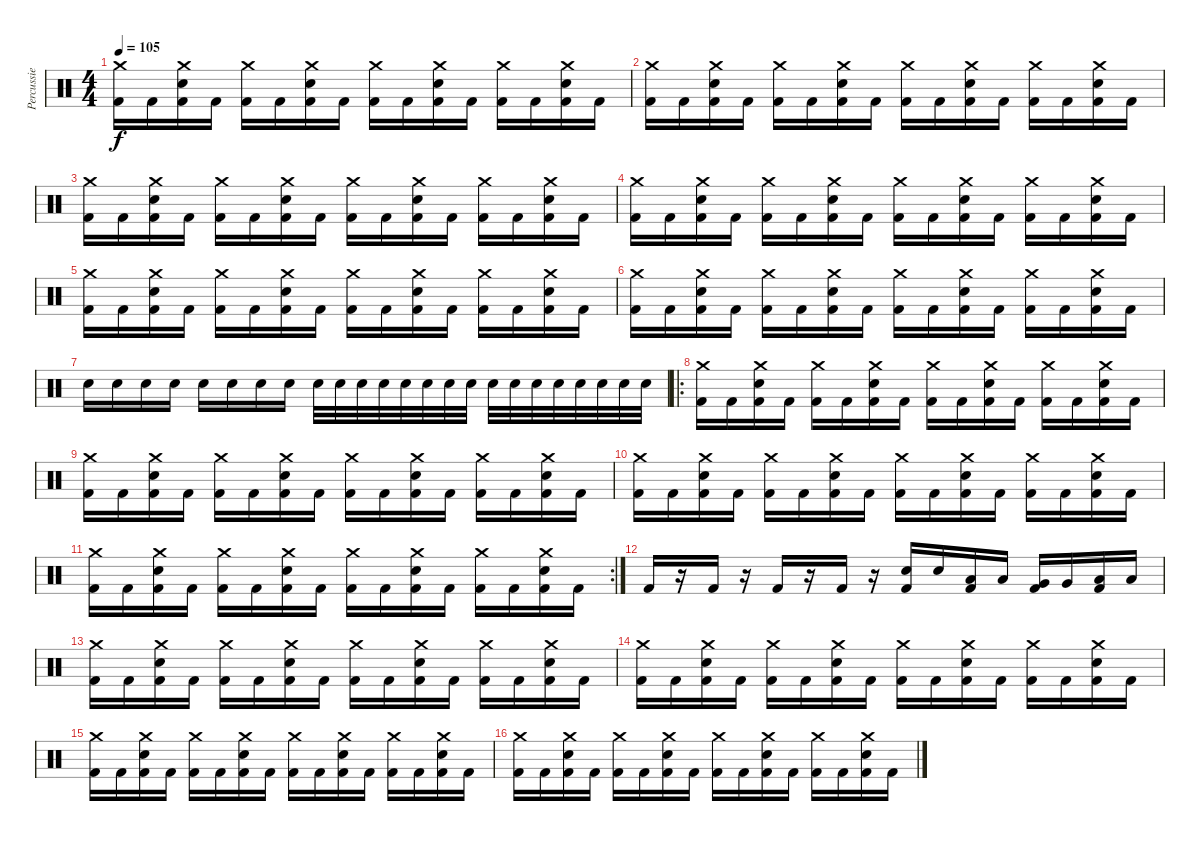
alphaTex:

\track ("Percussie" "Percussie") {instrument percussion}
\staff {score}
\articulation defaults
\ts (4 4)
\tempo 105
\clef neutral
\ks c
("Crash medium (hit)" "Kick (hit) 2").16{dy f} "Kick (hit) 2".16 ("Crash medium (hit)" "Electric Snare (hit)" "Kick (hit) 2").16 "Kick (hit) 2".16 ("Crash medium (hit)" "Kick (hit) 2").16 "Kick (hit) 2".16 ("Crash medium (hit)" "Electric Snare (hit)" "Kick (hit) 2").16 "Kick (hit) 2".16 ("Crash medium (hit)" "Kick (hit) 2").16 "Kick (hit) 2".16 ("Crash medium (hit)" "Electric Snare (hit)" "Kick (hit) 2").16 "Kick (hit) 2".16 ("Crash medium (hit)" "Kick (hit) 2").16 "Kick (hit) 2".16 ("Crash medium (hit)" "Electric Snare (hit)" "Kick (hit) 2").16 "Kick (hit) 2".16 |
("Crash medium (hit)" "Kick (hit) 2").16 "Kick (hit) 2".16 ("Crash medium (hit)" "Electric Snare (hit)" "Kick (hit) 2").16 "Kick (hit) 2".16 ("Crash medium (hit)" "Kick (hit) 2").16 "Kick (hit) 2".16 ("Crash medium (hit)" "Electric Snare (hit)" "Kick (hit) 2").16 "Kick (hit) 2".16 ("Crash medium (hit)" "Kick (hit) 2").16 "Kick (hit) 2".16 ("Crash medium (hit)" "Electric Snare (hit)" "Kick (hit) 2").16 "Kick (hit) 2".16 ("Crash medium (hit)" "Kick (hit) 2").16 "Kick (hit) 2".16 ("Crash medium (hit)" "Electric Snare (hit)" "Kick (hit) 2").16 "Kick (hit) 2".16 |
("Crash medium (hit)" "Kick (hit) 2").16 "Kick (hit) 2".16 ("Crash medium (hit)" "Electric Snare (hit)" "Kick (hit) 2").16 "Kick (hit) 2".16 ("Crash medium (hit)" "Kick (hit) 2").16 "Kick (hit) 2".16 ("Crash medium (hit)" "Electric Snare (hit)" "Kick (hit) 2").16 "Kick (hit) 2".16 ("Crash medium (hit)" "Kick (hit) 2").16 "Kick (hit) 2".16 ("Crash medium (hit)" "Electric Snare (hit)" "Kick (hit) 2").16 "Kick (hit) 2".16 ("Crash medium (hit)" "Kick (hit) 2").16 "Kick (hit) 2".16 ("Crash medium (hit)" "Electric Snare (hit)" "Kick (hit) 2").16 "Kick (hit) 2".16 |
("Crash medium (hit)" "Kick (hit) 2").16 "Kick (hit) 2".16 ("Crash medium (hit)" "Electric Snare (hit)" "Kick (hit) 2").16 "Kick (hit) 2".16 ("Crash medium (hit)" "Kick (hit) 2").16 "Kick (hit) 2".16 ("Crash medium (hit)" "Electric Snare (hit)" "Kick (hit) 2").16 "Kick (hit) 2".16 ("Crash medium (hit)" "Kick (hit) 2").16 "Kick (hit) 2".16 ("Crash medium (hit)" "Electric Snare (hit)" "Kick (hit) 2").16 "Kick (hit) 2".16 ("Crash medium (hit)" "Kick (hit) 2").16 "Kick (hit) 2".16 ("Crash medium (hit)" "Electric Snare (hit)" "Kick (hit) 2").16 "Kick (hit) 2".16 |
("Crash medium (hit)" "Kick (hit) 2").16 "Kick (hit) 2".16 ("Crash medium (hit)" "Electric Snare (hit)" "Kick (hit) 2").16 "Kick (hit) 2".16 ("Crash medium (hit)" "Kick (hit) 2").16 "Kick (hit) 2".16 ("Crash medium (hit)" "Electric Snare (hit)" "Kick (hit) 2").16 "Kick (hit) 2".16 ("Crash medium (hit)" "Kick (hit) 2").16 "Kick (hit) 2".16 ("Crash medium (hit)" "Electric Snare (hit)" "Kick (hit) 2").16 "Kick (hit) 2".16 ("Crash medium (hit)" "Kick (hit) 2").16 "Kick (hit) 2".16 ("Crash medium (hit)" "Electric Snare (hit)" "Kick (hit) 2").16 "Kick (hit) 2".16 |
("Crash medium (hit)" "Kick (hit) 2").16 "Kick (hit) 2".16 ("Crash medium (hit)" "Electric Snare (hit)" "Kick (hit) 2").16 "Kick (hit) 2".16 ("Crash medium (hit)" "Kick (hit) 2").16 "Kick (hit) 2".16 ("Crash medium (hit)" "Electric Snare (hit)" "Kick (hit) 2").16 "Kick (hit) 2".16 ("Crash medium (hit)" "Kick (hit) 2").16 "Kick (hit) 2".16 ("Crash medium (hit)" "Electric Snare (hit)" "Kick (hit) 2").16 "Kick (hit) 2".16 ("Crash medium (hit)" "Kick (hit) 2").16 "Kick (hit) 2".16 ("Crash medium (hit)" "Electric Snare (hit)" "Kick (hit) 2").16 "Kick (hit) 2".16 |
"Electric Snare (hit)".16 "Electric Snare (hit)".16 "Electric Snare (hit)".16 "Electric Snare (hit)".16 "Electric Snare (hit)".16 "Electric Snare (hit)".16 "Electric Snare (hit)".16 "Electric Snare (hit)".16 "Electric Snare (hit)".32 "Electric Snare (hit)".32 "Electric Snare (hit)".32 "Electric Snare (hit)".32 "Electric Snare (hit)".32 "Electric Snare (hit)".32 "Electric Snare (hit)".32 "Electric Snare (hit)".32 "Electric Snare (hit)".32 "Electric Snare (hit)".32 "Electric Snare (hit)".32 "Electric Snare (hit)".32 "Electric Snare (hit)".32 "Electric Snare (hit)".32 "Electric Snare (hit)".32 "Electric Snare (hit)".32 |
\ro
("Crash medium (hit)" "Kick (hit) 2").16 "Kick (hit) 2".16 ("Crash medium (hit)" "Electric Snare (hit)" "Kick (hit) 2").16 "Kick (hit) 2".16 ("Crash medium (hit)" "Kick (hit) 2").16 "Kick (hit) 2".16 ("Crash medium (hit)" "Electric Snare (hit)" "Kick (hit) 2").16 "Kick (hit) 2".16 ("Crash medium (hit)" "Kick (hit) 2").16 "Kick (hit) 2".16 ("Crash medium (hit)" "Electric Snare (hit)" "Kick (hit) 2").16 "Kick (hit) 2".16 ("Crash medium (hit)" "Kick (hit) 2").16 "Kick (hit) 2".16 ("Crash medium (hit)" "Electric Snare (hit)" "Kick (hit) 2").16 "Kick (hit) 2".16 |
("Crash medium (hit)" "Kick (hit) 2").16 "Kick (hit) 2".16 ("Crash medium (hit)" "Electric Snare (hit)" "Kick (hit) 2").16 "Kick (hit) 2".16 ("Crash medium (hit)" "Kick (hit) 2").16 "Kick (hit) 2".16 ("Crash medium (hit)" "Electric Snare (hit)" "Kick (hit) 2").16 "Kick (hit) 2".16 ("Crash medium (hit)" "Kick (hit) 2").16 "Kick (hit) 2".16 ("Crash medium (hit)" "Electric Snare (hit)" "Kick (hit) 2").16 "Kick (hit) 2".16 ("Crash medium (hit)" "Kick (hit) 2").16 "Kick (hit) 2".16 ("Crash medium (hit)" "Electric Snare (hit)" "Kick (hit) 2").16 "Kick (hit) 2".16 |
("Crash medium (hit)" "Kick (hit) 2").16 "Kick (hit) 2".16 ("Crash medium (hit)" "Electric Snare (hit)" "Kick (hit) 2").16 "Kick (hit) 2".16 ("Crash medium (hit)" "Kick (hit) 2").16 "Kick (hit) 2".16 ("Crash medium (hit)" "Electric Snare (hit)" "Kick (hit) 2").16 "Kick (hit) 2".16 ("Crash medium (hit)" "Kick (hit) 2").16 "Kick (hit) 2".16 ("Crash medium (hit)" "Electric Snare (hit)" "Kick (hit) 2").16 "Kick (hit) 2".16 ("Crash medium (hit)" "Kick (hit) 2").16 "Kick (hit) 2".16 ("Crash medium (hit)" "Electric Snare (hit)" "Kick (hit) 2").16 "Kick (hit) 2".16 |
\rc 2
("Crash medium (hit)" "Kick (hit) 2").16 "Kick (hit) 2".16 ("Crash medium (hit)" "Electric Snare (hit)" "Kick (hit) 2").16 "Kick (hit) 2".16 ("Crash medium (hit)" "Kick (hit) 2").16 "Kick (hit) 2".16 ("Crash medium (hit)" "Electric Snare (hit)" "Kick (hit) 2").16 "Kick (hit) 2".16 ("Crash medium (hit)" "Kick (hit) 2").16 "Kick (hit) 2".16 ("Crash medium (hit)" "Electric Snare (hit)" "Kick (hit) 2").16 "Kick (hit) 2".16 ("Crash medium (hit)" "Kick (hit) 2").16 "Kick (hit) 2".16 ("Crash medium (hit)" "Electric Snare (hit)" "Kick (hit) 2").16 "Kick (hit) 2".16 |
"Kick (hit) 2".16 r.16 "Kick (hit) 2".16 r.16 "Kick (hit) 2".16 r.16 "Kick (hit) 2".16 r.16 ("Electric Snare (hit)" "Kick (hit) 2").16 "Electric Snare (hit)".16 ("Low Floor Tom (hit)" "Kick (hit) 2").16 "Low Floor Tom (hit)".16 ("Very Low Tom (hit)" "Kick (hit) 2").16 "Very Low Tom (hit)".16 ("Low Tom (hit)" "Kick (hit) 2").16 "Low Tom (hit)".16 |
("Crash medium (hit)" "Kick (hit) 2").16 "Kick (hit) 2".16 ("Crash medium (hit)" "Electric Snare (hit)" "Kick (hit) 2").16 "Kick (hit) 2".16 ("Crash medium (hit)" "Kick (hit) 2").16 "Kick (hit) 2".16 ("Crash medium (hit)" "Electric Snare (hit)" "Kick (hit) 2").16 "Kick (hit) 2".16 ("Crash medium (hit)" "Kick (hit) 2").16 "Kick (hit) 2".16 ("Crash medium (hit)" "Electric Snare (hit)" "Kick (hit) 2").16 "Kick (hit) 2".16 ("Crash medium (hit)" "Kick (hit) 2").16 "Kick (hit) 2".16 ("Crash medium (hit)" "Electric Snare (hit)" "Kick (hit) 2").16 "Kick (hit) 2".16 |
("Crash medium (hit)" "Kick (hit) 2").16 "Kick (hit) 2".16 ("Crash medium (hit)" "Electric Snare (hit)" "Kick (hit) 2").16 "Kick (hit) 2".16 ("Crash medium (hit)" "Kick (hit) 2").16 "Kick (hit) 2".16 ("Crash medium (hit)" "Electric Snare (hit)" "Kick (hit) 2").16 "Kick (hit) 2".16 ("Crash medium (hit)" "Kick (hit) 2").16 "Kick (hit) 2".16 ("Crash medium (hit)" "Electric Snare (hit)" "Kick (hit) 2").16 "Kick (hit) 2".16 ("Crash medium (hit)" "Kick (hit) 2").16 "Kick (hit) 2".16 ("Crash medium (hit)" "Electric Snare (hit)" "Kick (hit) 2").16 "Kick (hit) 2".16 |
("Crash medium (hit)" "Kick (hit) 2").16 "Kick (hit) 2".16 ("Crash medium (hit)" "Electric Snare (hit)" "Kick (hit) 2").16 "Kick (hit) 2".16 ("Crash medium (hit)" "Kick (hit) 2").16 "Kick (hit) 2".16 ("Crash medium (hit)" "Electric Snare (hit)" "Kick (hit) 2").16 "Kick (hit) 2".16 ("Crash medium (hit)" "Kick (hit) 2").16 "Kick (hit) 2".16 ("Crash medium (hit)" "Electric Snare (hit)" "Kick (hit) 2").16 "Kick (hit) 2".16 ("Crash medium (hit)" "Kick (hit) 2").16 "Kick (hit) 2".16 ("Crash medium (hit)" "Electric Snare (hit)" "Kick (hit) 2").16 "Kick (hit) 2".16 |
("Crash medium (hit)" "Kick (hit) 2").16 "Kick (hit) 2".16 ("Crash medium (hit)" "Electric Snare (hit)" "Kick (hit) 2").16 "Kick (hit) 2".16 ("Crash medium (hit)" "Kick (hit) 2").16 "Kick (hit) 2".16 ("Crash medium (hit)" "Electric Snare (hit)" "Kick (hit) 2").16 "Kick (hit) 2".16 ("Crash medium (hit)" "Kick (hit) 2").16 "Kick (hit) 2".16 ("Crash medium (hit)" "Electric Snare (hit)" "Kick (hit) 2").16 "Kick (hit) 2".16 ("Crash medium (hit)" "Kick (hit) 2").16 "Kick (hit) 2".16 ("Crash medium (hit)" "Electric Snare (hit)" "Kick (hit) 2").16 "Kick (hit) 2".16
